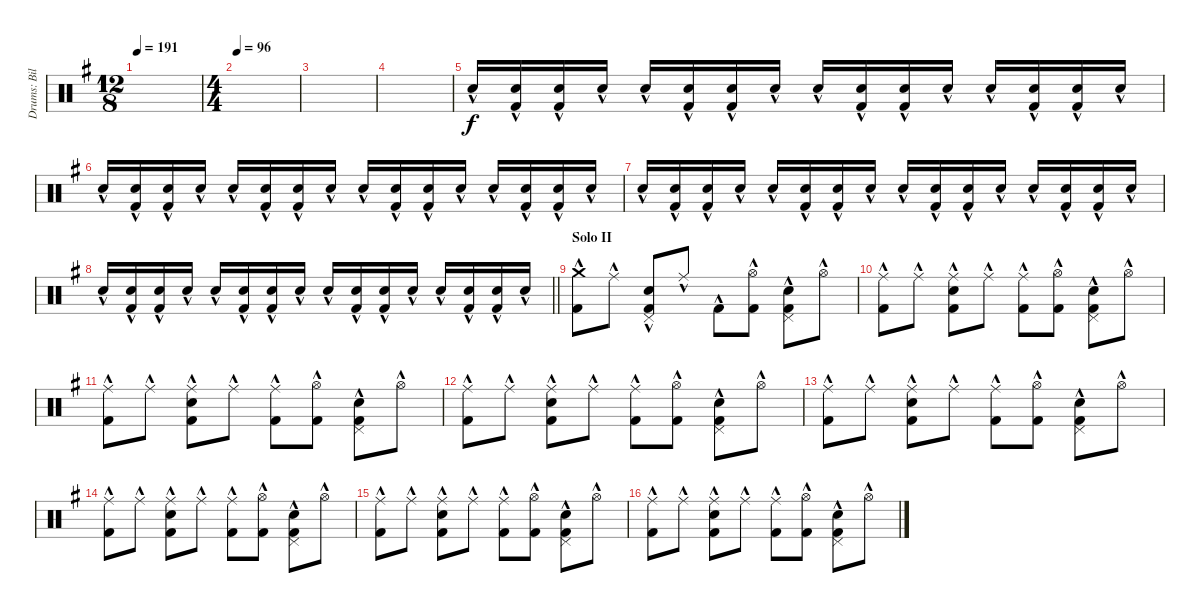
\track ("Drums: Bill" "Drums: Bil") {instrument percussion}
\staff {score}
\articulation defaults
\ts (12 8)
\tempo 191
\clef neutral
\ks g
|
\ts (4 4)
\tempo 96
|
|
|
"Snare (hit) 2"{hac}.16 ("Snare (hit) 2"{hac} "Kick (hit) 2"{hac}).16 ("Snare (hit) 2"{hac} "Kick (hit) 2"{hac}).16 "Snare (hit) 2"{hac}.16 "Snare (hit) 2"{hac}.16 ("Snare (hit) 2"{hac} "Kick (hit) 2"{hac}).16 ("Snare (hit) 2"{hac} "Kick (hit) 2"{hac}).16 "Snare (hit) 2"{hac}.16 "Snare (hit) 2"{hac}.16 ("Snare (hit) 2"{hac} "Kick (hit) 2"{hac}).16 ("Snare (hit) 2"{hac} "Kick (hit) 2"{hac}).16 "Snare (hit) 2"{hac}.16 "Snare (hit) 2"{hac}.16 ("Snare (hit) 2"{hac} "Kick (hit) 2"{hac}).16 ("Snare (hit) 2"{hac} "Kick (hit) 2"{hac}).16 "Snare (hit) 2"{hac}.16 |
"Snare (hit) 2"{hac}.16 ("Snare (hit) 2"{hac} "Kick (hit) 2"{hac}).16 ("Snare (hit) 2"{hac} "Kick (hit) 2"{hac}).16 "Snare (hit) 2"{hac}.16 "Snare (hit) 2"{hac}.16 ("Snare (hit) 2"{hac} "Kick (hit) 2"{hac}).16 ("Snare (hit) 2"{hac} "Kick (hit) 2"{hac}).16 "Snare (hit) 2"{hac}.16 "Snare (hit) 2"{hac}.16 ("Snare (hit) 2"{hac} "Kick (hit) 2"{hac}).16 ("Snare (hit) 2"{hac} "Kick (hit) 2"{hac}).16 "Snare (hit) 2"{hac}.16 "Snare (hit) 2"{hac}.16 ("Snare (hit) 2"{hac} "Kick (hit) 2"{hac}).16 ("Snare (hit) 2"{hac} "Kick (hit) 2"{hac}).16 "Snare (hit) 2"{hac}.16 |
"Snare (hit) 2"{hac}.16 ("Snare (hit) 2"{hac} "Kick (hit) 2"{hac}).16 ("Snare (hit) 2"{hac} "Kick (hit) 2"{hac}).16 "Snare (hit) 2"{hac}.16 "Snare (hit) 2"{hac}.16 ("Snare (hit) 2"{hac} "Kick (hit) 2"{hac}).16 ("Snare (hit) 2"{hac} "Kick (hit) 2"{hac}).16 "Snare (hit) 2"{hac}.16 "Snare (hit) 2"{hac}.16 ("Snare (hit) 2"{hac} "Kick (hit) 2"{hac}).16 ("Snare (hit) 2"{hac} "Kick (hit) 2"{hac}).16 "Snare (hit) 2"{hac}.16 "Snare (hit) 2"{hac}.16 ("Snare (hit) 2"{hac} "Kick (hit) 2"{hac}).16 ("Snare (hit) 2"{hac} "Kick (hit) 2"{hac}).16 "Snare (hit) 2"{hac}.16 |
\barLineRight lightlight "Snare (hit) 2"{hac}.16
("Snare (hit) 2"{hac} "Kick (hit) 2"{hac}).16 ("Snare (hit) 2"{hac} "Kick (hit) 2"{hac}).16 "Snare (hit) 2"{hac}.16 "Snare (hit) 2"{hac}.16 ("Snare (hit) 2"{hac} "Kick (hit) 2"{hac}).16 ("Snare (hit) 2"{hac} "Kick (hit) 2"{hac}).16 "Snare (hit) 2"{hac}.16 "Snare (hit) 2"{hac}.16 ("Snare (hit) 2"{hac} "Kick (hit) 2"{hac}).16 ("Snare (hit) 2"{hac} "Kick (hit) 2"{hac}).16 "Snare (hit) 2"{hac}.16 "Snare (hit) 2"{hac}.16 ("Snare (hit) 2"{hac} "Kick (hit) 2"{hac}).16 ("Snare (hit) 2"{hac} "Kick (hit) 2"{hac}).16 "Snare (hit) 2"{hac}.16 |
\section ("" "Solo II")
("Crash medium (hit)"{hac} "Kick (hit) 2"{hac}).8 "Ride (middle)"{hac}.8 ("Pedal Hi-Hat (hit)"{hac} "Snare (hit) 2"{hac} "Kick (hit) 2"{hac}).8 "Ride (middle)"{hac}.8 "Kick (hit) 2"{hac}.8 ("Hi-Hat (open)"{hac} "Kick (hit) 2"{hac}).8 ("Pedal Hi-Hat (hit)"{hac} "Snare (hit) 2"{hac} "Kick (hit) 2"{hac}).8 "Hi-Hat (open)"{hac}.8 |
("Ride (middle)"{hac} "Kick (hit) 2"{hac}).8 "Ride (middle)"{hac}.8 ("Ride (middle)"{hac} "Snare (hit) 2"{hac} "Kick (hit) 2"{hac}).8 "Ride (middle)"{hac}.8 ("Ride (middle)"{hac} "Kick (hit) 2"{hac}).8 ("Hi-Hat (open)"{hac} "Kick (hit) 2"{hac}).8 ("Pedal Hi-Hat (hit)"{hac} "Snare (hit) 2"{hac} "Kick (hit) 2"{hac}).8 "Hi-Hat (open)"{hac}.8 |
("Ride (middle)"{hac} "Kick (hit) 2"{hac}).8 "Ride (middle)"{hac}.8 ("Ride (middle)"{hac} "Snare (hit) 2"{hac} "Kick (hit) 2"{hac}).8 "Ride (middle)"{hac}.8 ("Ride (middle)"{hac} "Kick (hit) 2"{hac}).8 ("Hi-Hat (open)"{hac} "Kick (hit) 2"{hac}).8 ("Pedal Hi-Hat (hit)"{hac} "Snare (hit) 2"{hac} "Kick (hit) 2"{hac}).8 "Hi-Hat (open)"{hac}.8 |
("Ride (middle)"{hac} "Kick (hit) 2"{hac}).8 "Ride (middle)"{hac}.8 ("Ride (middle)"{hac} "Snare (hit) 2"{hac} "Kick (hit) 2"{hac}).8 "Ride (middle)"{hac}.8 ("Ride (middle)"{hac} "Kick (hit) 2"{hac}).8 ("Hi-Hat (open)"{hac} "Kick (hit) 2"{hac}).8 ("Pedal Hi-Hat (hit)"{hac} "Snare (hit) 2"{hac} "Kick (hit) 2"{hac}).8 "Hi-Hat (open)"{hac}.8 |
("Ride (middle)"{hac} "Kick (hit) 2"{hac}).8 "Ride (middle)"{hac}.8 ("Ride (middle)"{hac} "Snare (hit) 2"{hac} "Kick (hit) 2"{hac}).8 "Ride (middle)"{hac}.8 ("Ride (middle)"{hac} "Kick (hit) 2"{hac}).8 ("Hi-Hat (open)"{hac} "Kick (hit) 2"{hac}).8 ("Pedal Hi-Hat (hit)"{hac} "Snare (hit) 2"{hac} "Kick (hit) 2"{hac}).8 "Hi-Hat (open)"{hac}.8 |
("Ride (middle)"{hac} "Kick (hit) 2"{hac}).8 "Ride (middle)"{hac}.8 ("Ride (middle)"{hac} "Snare (hit) 2"{hac} "Kick (hit) 2"{hac}).8 "Ride (middle)"{hac}.8 ("Ride (middle)"{hac} "Kick (hit) 2"{hac}).8 ("Hi-Hat (open)"{hac} "Kick (hit) 2"{hac}).8 ("Pedal Hi-Hat (hit)"{hac} "Snare (hit) 2"{hac} "Kick (hit) 2"{hac}).8 "Hi-Hat (open)"{hac}.8 |
("Ride (middle)"{hac} "Kick (hit) 2"{hac}).8 "Ride (middle)"{hac}.8 ("Ride (middle)"{hac} "Snare (hit) 2"{hac} "Kick (hit) 2"{hac}).8 "Ride (middle)"{hac}.8 ("Ride (middle)"{hac} "Kick (hit) 2"{hac}).8 ("Hi-Hat (open)"{hac} "Kick (hit) 2"{hac}).8 ("Pedal Hi-Hat (hit)"{hac} "Snare (hit) 2"{hac} "Kick (hit) 2"{hac}).8 "Hi-Hat (open)"{hac}.8 |
("Ride (middle)"{hac} "Kick (hit) 2"{hac}).8 "Ride (middle)"{hac}.8 ("Ride (middle)"{hac} "Snare (hit) 2"{hac} "Kick (hit) 2"{hac}).8 "Ride (middle)"{hac}.8 ("Ride (middle)"{hac} "Kick (hit) 2"{hac}).8 ("Hi-Hat (open)"{hac} "Kick (hit) 2"{hac}).8 ("Pedal Hi-Hat (hit)"{hac} "Snare (hit) 2"{hac} "Kick (hit) 2"{hac}).8 "Hi-Hat (open)"{hac}.8
